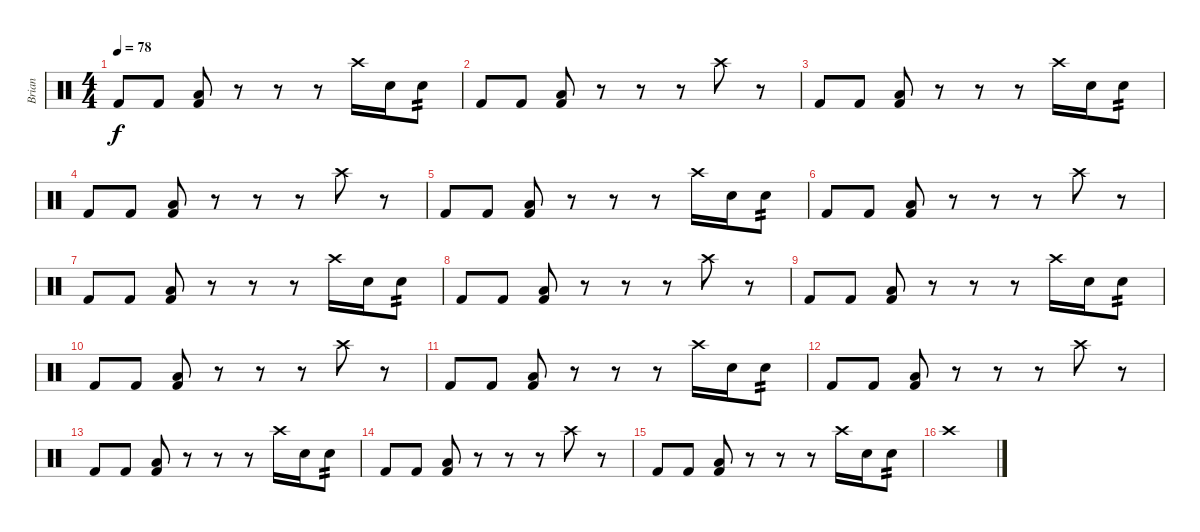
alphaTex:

\track ("Brian" "Brian") {instrument percussion}
\staff {score}
\articulation defaults
\ts (4 4)
\tempo 78
\clef neutral
\ks c "Kick (hit) 2".8{dy f} "Kick (hit) 2".8
("Low Tom (hit)" "Kick (hit) 2").8 r.8 r.8 r.8 "Crash high (hit)".16 "Electric Snare (hit)".16 "Electric Snare (hit)".8{tp 2} |
"Kick (hit) 2".8 "Kick (hit) 2".8 ("Low Tom (hit)" "Kick (hit) 2").8 r.8 r.8 r.8 "Crash high (hit)".8 r.8 |
"Kick (hit) 2".8 "Kick (hit) 2".8 ("Low Tom (hit)" "Kick (hit) 2").8 r.8 r.8 r.8 "Crash high (hit)".16 "Electric Snare (hit)".16 "Electric Snare (hit)".8{tp 2} |
"Kick (hit) 2".8 "Kick (hit) 2".8 ("Low Tom (hit)" "Kick (hit) 2").8 r.8 r.8 r.8 "Crash high (hit)".8 r.8 |
"Kick (hit) 2".8 "Kick (hit) 2".8 ("Low Tom (hit)" "Kick (hit) 2").8 r.8 r.8 r.8 "Crash high (hit)".16 "Electric Snare (hit)".16 "Electric Snare (hit)".8{tp 2} |
"Kick (hit) 2".8 "Kick (hit) 2".8 ("Low Tom (hit)" "Kick (hit) 2").8 r.8 r.8 r.8 "Crash high (hit)".8 r.8 |
"Kick (hit) 2".8 "Kick (hit) 2".8 ("Low Tom (hit)" "Kick (hit) 2").8 r.8 r.8 r.8 "Crash high (hit)".16 "Electric Snare (hit)".16 "Electric Snare (hit)".8{tp 2} |
"Kick (hit) 2".8 "Kick (hit) 2".8 ("Low Tom (hit)" "Kick (hit) 2").8 r.8 r.8 r.8 "Crash high (hit)".8 r.8 |
"Kick (hit) 2".8 "Kick (hit) 2".8 ("Low Tom (hit)" "Kick (hit) 2").8 r.8 r.8 r.8 "Crash high (hit)".16 "Electric Snare (hit)".16 "Electric Snare (hit)".8{tp 2} |
"Kick (hit) 2".8 "Kick (hit) 2".8 ("Low Tom (hit)" "Kick (hit) 2").8 r.8 r.8 r.8 "Crash high (hit)".8 r.8 |
"Kick (hit) 2".8 "Kick (hit) 2".8 ("Low Tom (hit)" "Kick (hit) 2").8 r.8 r.8 r.8 "Crash high (hit)".16 "Electric Snare (hit)".16 "Electric Snare (hit)".8{tp 2} |
"Kick (hit) 2".8 "Kick (hit) 2".8 ("Low Tom (hit)" "Kick (hit) 2").8 r.8 r.8 r.8 "Crash high (hit)".8 r.8 |
"Kick (hit) 2".8 "Kick (hit) 2".8 ("Low Tom (hit)" "Kick (hit) 2").8 r.8 r.8 r.8 "Crash high (hit)".16 "Electric Snare (hit)".16 "Electric Snare (hit)".8{tp 2} |
"Kick (hit) 2".8 "Kick (hit) 2".8 ("Low Tom (hit)" "Kick (hit) 2").8 r.8 r.8 r.8 "Crash high (hit)".8 r.8 |
"Kick (hit) 2".8 "Kick (hit) 2".8 ("Low Tom (hit)" "Kick (hit) 2").8 r.8 r.8 r.8 "Crash high (hit)".16 "Electric Snare (hit)".16 "Electric Snare (hit)".8{tp 2} |
"Crash high (hit)".1
